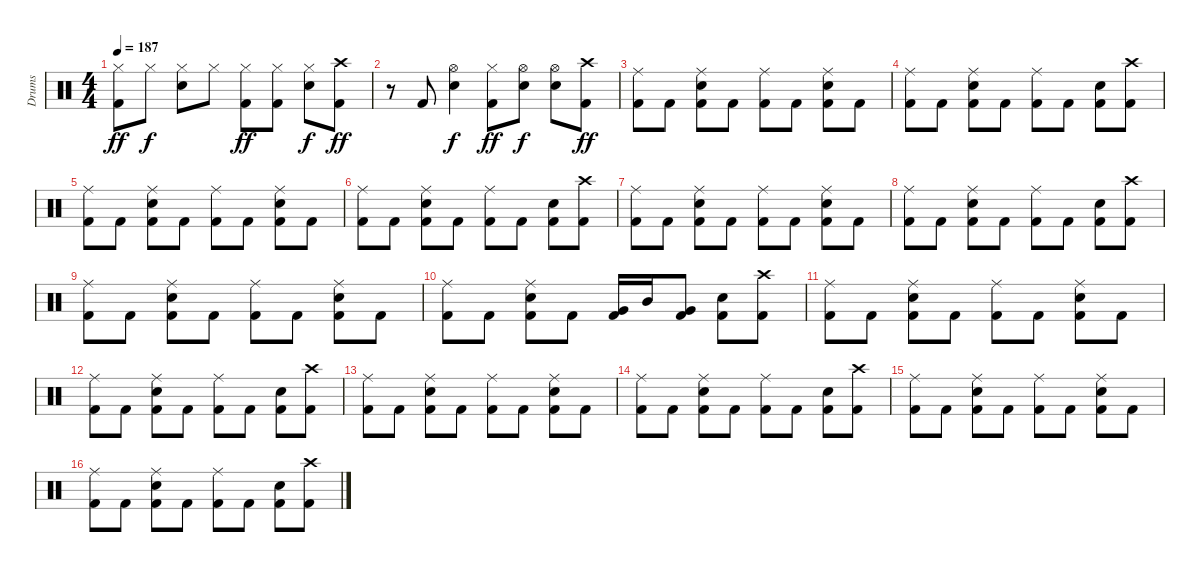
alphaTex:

\track ("Drums" "Drums") {instrument percussion}
\staff {score}
\articulation defaults
\ts (4 4)
\tempo 187
\clef neutral
\ks c
("Hi-Hat (closed)" "Kick (hit) 2").8{dy ff} "Hi-Hat (closed)".8{dy f} ("Hi-Hat (closed)" "Electric Snare (hit)").8 "Hi-Hat (closed)".8 ("Hi-Hat (closed)" "Kick (hit) 2").8{dy ff} ("Hi-Hat (closed)" "Kick (hit) 2").8 ("Hi-Hat (closed)" "Electric Snare (hit)").8{dy f} ("Crash high (hit)" "Kick (hit) 2").8{dy ff} |
r.8 "Kick (hit) 2".8 ("Hi-Hat (open)" "Electric Snare (hit)").4{dy f} ("Hi-Hat (closed)" "Kick (hit) 2").8{dy ff} ("Hi-Hat (open)" "Electric Snare (hit)").8{dy f} ("Hi-Hat (open)" "Electric Snare (hit)").8 ("Crash high (hit)" "Kick (hit) 2").8{dy ff} |
("Ride (middle)" "Kick (hit) 2").8 "Kick (hit) 2".8 ("Ride (middle)" "Electric Snare (hit)" "Kick (hit) 2").8 "Kick (hit) 2".8 ("Ride (middle)" "Kick (hit) 2").8 "Kick (hit) 2".8 ("Ride (middle)" "Electric Snare (hit)" "Kick (hit) 2").8 "Kick (hit) 2".8 |
("Ride (middle)" "Kick (hit) 2").8 "Kick (hit) 2".8 ("Ride (middle)" "Electric Snare (hit)" "Kick (hit) 2").8 "Kick (hit) 2".8 ("Ride (middle)" "Kick (hit) 2").8 "Kick (hit) 2".8 ("Electric Snare (hit)" "Kick (hit) 2").8 ("Crash high (hit)" "Kick (hit) 2").8 |
("Ride (middle)" "Kick (hit) 2").8 "Kick (hit) 2".8 ("Ride (middle)" "Electric Snare (hit)" "Kick (hit) 2").8 "Kick (hit) 2".8 ("Ride (middle)" "Kick (hit) 2").8 "Kick (hit) 2".8 ("Ride (middle)" "Electric Snare (hit)" "Kick (hit) 2").8 "Kick (hit) 2".8 |
("Ride (middle)" "Kick (hit) 2").8 "Kick (hit) 2".8 ("Ride (middle)" "Electric Snare (hit)" "Kick (hit) 2").8 "Kick (hit) 2".8 ("Ride (middle)" "Kick (hit) 2").8 "Kick (hit) 2".8 ("Electric Snare (hit)" "Kick (hit) 2").8 ("Crash high (hit)" "Kick (hit) 2").8 |
("Ride (middle)" "Kick (hit) 2").8 "Kick (hit) 2".8 ("Ride (middle)" "Electric Snare (hit)" "Kick (hit) 2").8 "Kick (hit) 2".8 ("Ride (middle)" "Kick (hit) 2").8 "Kick (hit) 2".8 ("Ride (middle)" "Electric Snare (hit)" "Kick (hit) 2").8 "Kick (hit) 2".8 |
("Ride (middle)" "Kick (hit) 2").8 "Kick (hit) 2".8 ("Ride (middle)" "Electric Snare (hit)" "Kick (hit) 2").8 "Kick (hit) 2".8 ("Ride (middle)" "Kick (hit) 2").8 "Kick (hit) 2".8 ("Electric Snare (hit)" "Kick (hit) 2").8 ("Crash high (hit)" "Kick (hit) 2").8 |
("Ride (middle)" "Kick (hit) 2").8 "Kick (hit) 2".8 ("Ride (middle)" "Electric Snare (hit)" "Kick (hit) 2").8 "Kick (hit) 2".8 ("Ride (middle)" "Kick (hit) 2").8 "Kick (hit) 2".8 ("Ride (middle)" "Electric Snare (hit)" "Kick (hit) 2").8 "Kick (hit) 2".8 |
("Ride (middle)" "Kick (hit) 2").8 "Kick (hit) 2".8 ("Ride (middle)" "Electric Snare (hit)" "Kick (hit) 2").8 "Kick (hit) 2".8 ("Very Low Tom (hit)" "Kick (hit) 2").16 "Mid Tom (hit)".16 ("Very Low Tom (hit)" "Kick (hit) 2").8 ("Electric Snare (hit)" "Kick (hit) 2").8 ("Crash high (hit)" "Kick (hit) 2").8 |
("Ride (middle)" "Kick (hit) 2").8 "Kick (hit) 2".8 ("Ride (middle)" "Electric Snare (hit)" "Kick (hit) 2").8 "Kick (hit) 2".8 ("Ride (middle)" "Kick (hit) 2").8 "Kick (hit) 2".8 ("Ride (middle)" "Electric Snare (hit)" "Kick (hit) 2").8 "Kick (hit) 2".8 |
("Ride (middle)" "Kick (hit) 2").8 "Kick (hit) 2".8 ("Ride (middle)" "Electric Snare (hit)" "Kick (hit) 2").8 "Kick (hit) 2".8 ("Ride (middle)" "Kick (hit) 2").8 "Kick (hit) 2".8 ("Electric Snare (hit)" "Kick (hit) 2").8 ("Crash high (hit)" "Kick (hit) 2").8 |
("Ride (middle)" "Kick (hit) 2").8 "Kick (hit) 2".8 ("Ride (middle)" "Electric Snare (hit)" "Kick (hit) 2").8 "Kick (hit) 2".8 ("Ride (middle)" "Kick (hit) 2").8 "Kick (hit) 2".8 ("Ride (middle)" "Electric Snare (hit)" "Kick (hit) 2").8 "Kick (hit) 2".8 |
("Ride (middle)" "Kick (hit) 2").8 "Kick (hit) 2".8 ("Ride (middle)" "Electric Snare (hit)" "Kick (hit) 2").8 "Kick (hit) 2".8 ("Ride (middle)" "Kick (hit) 2").8 "Kick (hit) 2".8 ("Electric Snare (hit)" "Kick (hit) 2").8 ("Crash high (hit)" "Kick (hit) 2").8 |
("Ride (middle)" "Kick (hit) 2").8 "Kick (hit) 2".8 ("Ride (middle)" "Electric Snare (hit)" "Kick (hit) 2").8 "Kick (hit) 2".8 ("Ride (middle)" "Kick (hit) 2").8 "Kick (hit) 2".8 ("Ride (middle)" "Electric Snare (hit)" "Kick (hit) 2").8 "Kick (hit) 2".8 |
("Ride (middle)" "Kick (hit) 2").8 "Kick (hit) 2".8 ("Ride (middle)" "Electric Snare (hit)" "Kick (hit) 2").8 "Kick (hit) 2".8 ("Ride (middle)" "Kick (hit) 2").8 "Kick (hit) 2".8 ("Electric Snare (hit)" "Kick (hit) 2").8 ("Crash high (hit)" "Kick (hit) 2").8
